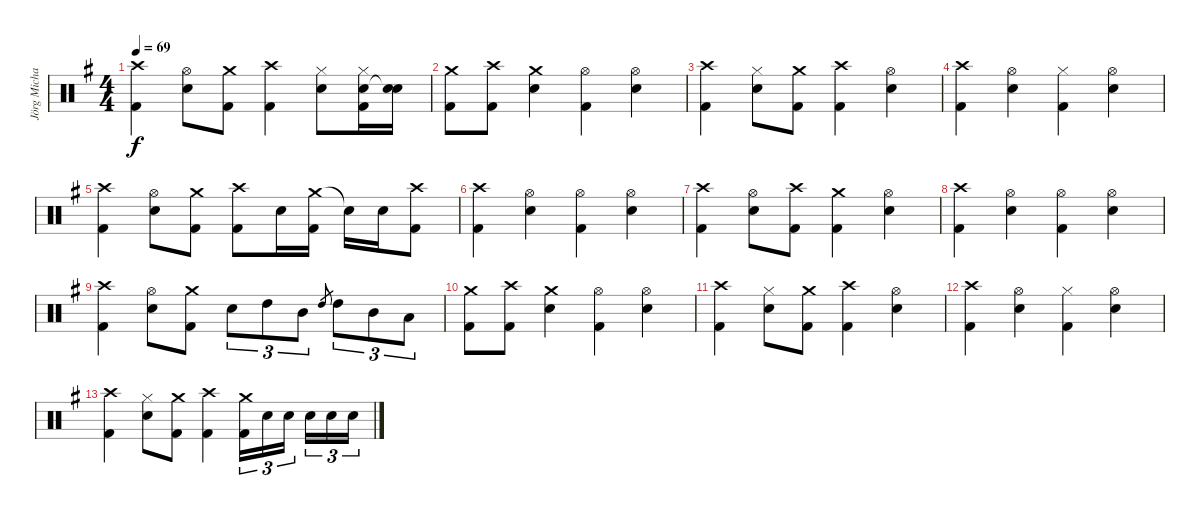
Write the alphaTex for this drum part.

\track ("Jörg Michael" "Jörg Micha") {instrument percussion}
\staff {score}
\articulation defaults
\ts (4 4)
\tempo 69
\clef neutral
\ks g
("Crash high (hit)" "Kick (hit) 2").4{dy f} ("Hi-Hat (open)" "Electric Snare (hit)").8 ("Crash medium (hit)" "Kick (hit) 2").8 ("Crash high (hit)" "Kick (hit) 2").4 ("Electric Snare (hit)" "Hi-Hat (closed)").8 ("Hi-Hat (closed)" "Electric Snare (hit)" "Kick (hit) 2").16 ("Electric Snare (hit)" "Snare (hit)"{t}).16 |
("Crash medium (hit)" "Kick (hit) 2").8 ("Crash high (hit)" "Kick (hit) 2").8 ("Crash medium (hit)" "Electric Snare (hit)").4 ("Hi-Hat (open)" "Kick (hit) 2").4 ("Electric Snare (hit)" "Hi-Hat (open)").4 |
("Crash high (hit)" "Kick (hit) 2").4 ("Hi-Hat (closed)" "Electric Snare (hit)").8 ("Kick (hit) 2" "Crash medium (hit)").8 ("Crash high (hit)" "Kick (hit) 2").4 ("Hi-Hat (open)" "Electric Snare (hit)").4 |
("Crash high (hit)" "Kick (hit) 2").4 ("Hi-Hat (open)" "Electric Snare (hit)").4 ("Hi-Hat (closed)" "Kick (hit) 2").4 ("Hi-Hat (open)" "Electric Snare (hit)").4 |
("Crash high (hit)" "Kick (hit) 2").4 ("Electric Snare (hit)" "Hi-Hat (open)").8 ("Crash medium (hit)" "Kick (hit) 2").8 ("Crash high (hit)" "Kick (hit) 2").8 "Electric Snare (hit)".16 ("Crash medium (hit)" "Kick (hit) 2").16 "Snare (hit)"{t}.16 "Electric Snare (hit)".16 ("Crash high (hit)" "Kick (hit) 2").8 |
("Crash high (hit)" "Kick (hit) 2").4 ("Hi-Hat (open)" "Electric Snare (hit)").4 ("Hi-Hat (open)" "Kick (hit) 2").4 ("Hi-Hat (open)" "Electric Snare (hit)").4 |
("Crash high (hit)" "Kick (hit) 2").4 ("Electric Snare (hit)" "Hi-Hat (open)").8 ("Crash high (hit)" "Kick (hit) 2").8 ("Crash medium (hit)" "Kick (hit) 2").4 ("Hi-Hat (open)" "Electric Snare (hit)").4 |
("Crash high (hit)" "Kick (hit) 2").4 ("Hi-Hat (open)" "Electric Snare (hit)").4 ("Hi-Hat (open)" "Kick (hit) 2").4 ("Hi-Hat (open)" "Electric Snare (hit)").4 |
("Crash high (hit)" "Kick (hit) 2").4 ("Hi-Hat (open)" "Electric Snare (hit)").8 ("Crash medium (hit)" "Kick (hit) 2").8 "Electric Snare (hit)".8{tu (3 2)} "High Tom (hit)".8{tu (3 2)} "Mid Tom (hit)".8{tu (3 2)} "High Tom (hit)".8{gr} "High Tom (hit)".8{tu (3 2)} "Mid Tom (hit)".8{tu (3 2)} "Low Tom (hit)".8{tu (3 2)} |
("Crash medium (hit)" "Kick (hit) 2").8 ("Crash high (hit)" "Kick (hit) 2").8 ("Crash medium (hit)" "Electric Snare (hit)").4 ("Hi-Hat (open)" "Kick (hit) 2").4 ("Electric Snare (hit)" "Hi-Hat (open)").4 |
("Crash high (hit)" "Kick (hit) 2").4 ("Hi-Hat (closed)" "Electric Snare (hit)").8 ("Kick (hit) 2" "Crash medium (hit)").8 ("Crash high (hit)" "Kick (hit) 2").4 ("Hi-Hat (open)" "Electric Snare (hit)").4 |
("Crash high (hit)" "Kick (hit) 2").4 ("Hi-Hat (open)" "Electric Snare (hit)").4 ("Hi-Hat (closed)" "Kick (hit) 2").4 ("Hi-Hat (open)" "Electric Snare (hit)").4 |
("Crash high (hit)" "Kick (hit) 2").4 ("Hi-Hat (closed)" "Electric Snare (hit)").8 ("Crash medium (hit)" "Kick (hit) 2").8 ("Crash high (hit)" "Kick (hit) 2").4 ("Crash medium (hit)" "Kick (hit) 2").16{tu (3 2)} "Electric Snare (hit)".16{tu (3 2)} "Electric Snare (hit)".16{tu (3 2) beam splitsecondary} "Electric Snare (hit)".16{tu (3 2)} "Electric Snare (hit)".16{tu (3 2)} "Electric Snare (hit)".16{tu (3 2)}
